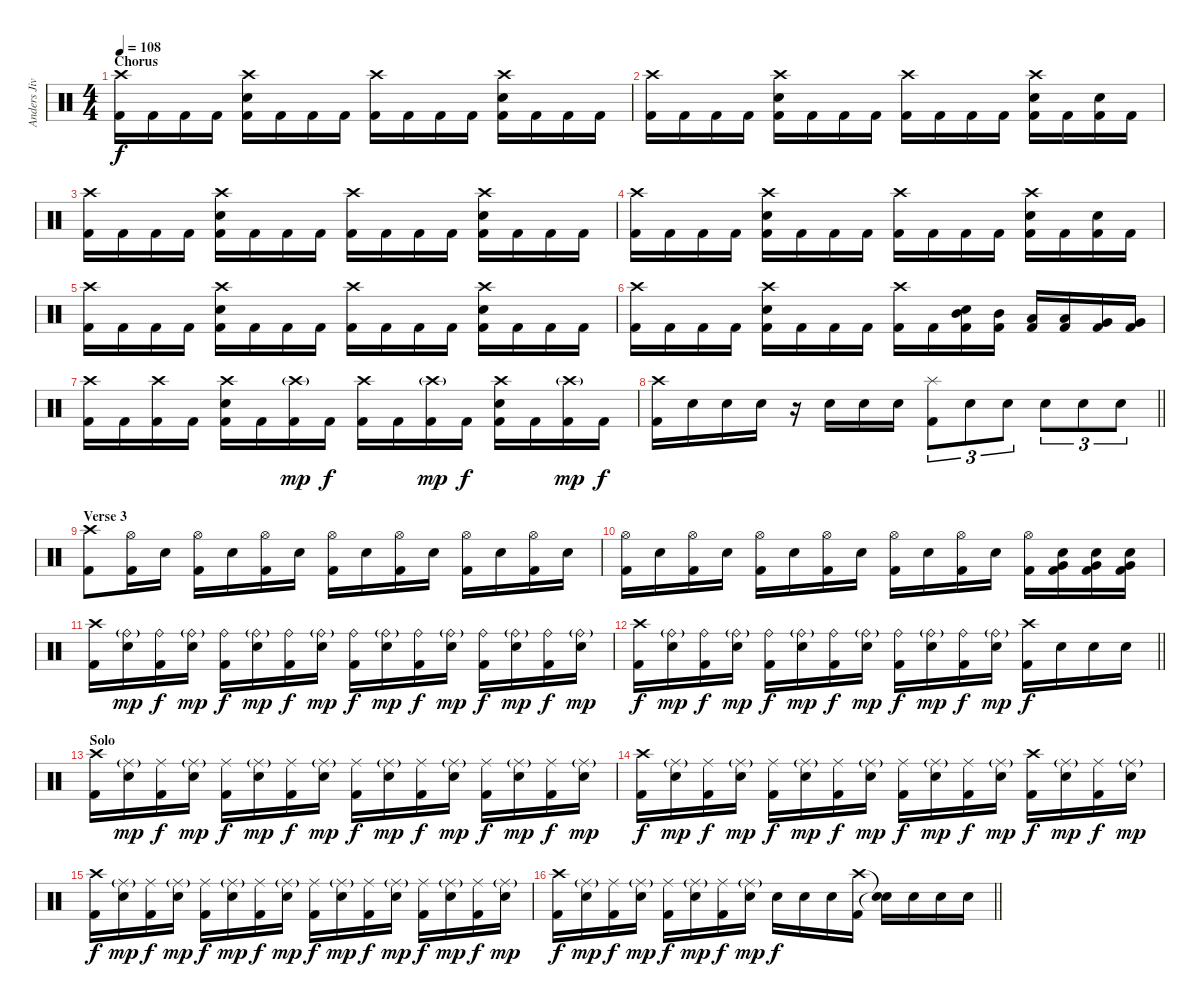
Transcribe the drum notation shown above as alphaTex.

\track ("Anders Jivarp" "Anders Jiv") {instrument percussion}
\staff {score}
\articulation defaults
\ts (4 4)
\section ("" "Chorus")
\tempo 108
\clef neutral
\ks c
("Crash high (hit)" "Kick (hit) 2").16{dy f} "Kick (hit) 2".16 "Kick (hit) 2".16 "Kick (hit) 2".16 ("Crash high (hit)" "Snare (hit) 2" "Kick (hit) 2").16 "Kick (hit) 2".16 "Kick (hit) 2".16 "Kick (hit) 2".16 ("Crash high (hit)" "Kick (hit) 2").16 "Kick (hit) 2".16 "Kick (hit) 2".16 "Kick (hit) 2".16 ("Crash high (hit)" "Snare (hit) 2" "Kick (hit) 2").16 "Kick (hit) 2".16 "Kick (hit) 2".16 "Kick (hit) 2".16 |
("Crash high (hit)" "Kick (hit) 2").16 "Kick (hit) 2".16 "Kick (hit) 2".16 "Kick (hit) 2".16 ("Crash high (hit)" "Snare (hit) 2" "Kick (hit) 2").16 "Kick (hit) 2".16 "Kick (hit) 2".16 "Kick (hit) 2".16 ("Crash high (hit)" "Kick (hit) 2").16 "Kick (hit) 2".16 "Kick (hit) 2".16 "Kick (hit) 2".16 ("Crash high (hit)" "Snare (hit) 2" "Kick (hit) 2").16 "Kick (hit) 2".16 ("Snare (hit) 2" "Kick (hit) 2").16 "Kick (hit) 2".16 |
("Crash high (hit)" "Kick (hit) 2").16 "Kick (hit) 2".16 "Kick (hit) 2".16 "Kick (hit) 2".16 ("Crash high (hit)" "Snare (hit) 2" "Kick (hit) 2").16 "Kick (hit) 2".16 "Kick (hit) 2".16 "Kick (hit) 2".16 ("Crash high (hit)" "Kick (hit) 2").16 "Kick (hit) 2".16 "Kick (hit) 2".16 "Kick (hit) 2".16 ("Crash high (hit)" "Snare (hit) 2" "Kick (hit) 2").16 "Kick (hit) 2".16 "Kick (hit) 2".16 "Kick (hit) 2".16 |
("Crash high (hit)" "Kick (hit) 2").16 "Kick (hit) 2".16 "Kick (hit) 2".16 "Kick (hit) 2".16 ("Crash high (hit)" "Snare (hit) 2" "Kick (hit) 2").16 "Kick (hit) 2".16 "Kick (hit) 2".16 "Kick (hit) 2".16 ("Crash high (hit)" "Kick (hit) 2").16 "Kick (hit) 2".16 "Kick (hit) 2".16 "Kick (hit) 2".16 ("Crash high (hit)" "Snare (hit) 2" "Kick (hit) 2").16 "Kick (hit) 2".16 ("Snare (hit) 2" "Kick (hit) 2").16 "Kick (hit) 2".16 |
("Crash high (hit)" "Kick (hit) 2").16 "Kick (hit) 2".16 "Kick (hit) 2".16 "Kick (hit) 2".16 ("Crash high (hit)" "Snare (hit) 2" "Kick (hit) 2").16 "Kick (hit) 2".16 "Kick (hit) 2".16 "Kick (hit) 2".16 ("Crash high (hit)" "Kick (hit) 2").16 "Kick (hit) 2".16 "Kick (hit) 2".16 "Kick (hit) 2".16 ("Crash high (hit)" "Snare (hit) 2" "Kick (hit) 2").16 "Kick (hit) 2".16 "Kick (hit) 2".16 "Kick (hit) 2".16 |
("Crash high (hit)" "Kick (hit) 2").16 "Kick (hit) 2".16 "Kick (hit) 2".16 "Kick (hit) 2".16 ("Crash high (hit)" "Snare (hit) 2" "Kick (hit) 2").16 "Kick (hit) 2".16 "Kick (hit) 2".16 "Kick (hit) 2".16 ("Crash high (hit)" "Kick (hit) 2").16 "Kick (hit) 2".16 ("Mid Tom (hit)" "Snare (hit) 2" "Kick (hit) 2").16 ("Mid Tom (hit)" "Kick (hit) 2").16 ("Low Tom (hit)" "Kick (hit) 2").16 ("Low Tom (hit)" "Kick (hit) 2").16 ("Very Low Tom (hit)" "Kick (hit) 2").16 ("Very Low Tom (hit)" "Kick (hit) 2").16 |
("Crash high (hit)" "Kick (hit) 2").16 "Kick (hit) 2".16 ("Crash high (hit)" "Kick (hit) 2").16 "Kick (hit) 2".16 ("Crash high (hit)" "Snare (hit) 2" "Kick (hit) 2").16 "Kick (hit) 2".16 ("Crash high (hit)"{g} "Kick (hit) 2").16{dy mp} "Kick (hit) 2".16{dy f} ("Crash high (hit)" "Kick (hit) 2").16 "Kick (hit) 2".16 ("Crash high (hit)"{g} "Kick (hit) 2").16{dy mp} "Kick (hit) 2".16{dy f} ("Crash high (hit)" "Snare (hit) 2" "Kick (hit) 2").16 "Kick (hit) 2".16 ("Crash high (hit)"{g} "Kick (hit) 2").16{dy mp} "Kick (hit) 2".16{dy f} |
\barLineRight lightlight
("Crash high (hit)" "Kick (hit) 2").16 "Snare (hit) 2".16 "Snare (hit) 2".16 "Snare (hit) 2".16 r.16 "Snare (hit) 2".16 "Snare (hit) 2".16 "Snare (hit) 2".16 ("Splash (hit)" "Kick (hit) 2").8{tu (3 2)} "Snare (hit) 2".8{tu (3 2)} "Snare (hit) 2".8{tu (3 2)} "Snare (hit) 2".8{tu (3 2)} "Snare (hit) 2".8{tu (3 2)} "Snare (hit) 2".8{tu (3 2)} |
\section ("" "Verse 3")
("Crash high (hit)" "Kick (hit) 2").8 ("Hi-Hat (open)" "Kick (hit) 2").16 "Snare (hit) 2".16 ("Hi-Hat (open)" "Kick (hit) 2").16 "Snare (hit) 2".16 ("Hi-Hat (open)" "Kick (hit) 2").16 "Snare (hit) 2".16 ("Hi-Hat (open)" "Kick (hit) 2").16 "Snare (hit) 2".16 ("Hi-Hat (open)" "Kick (hit) 2").16 "Snare (hit) 2".16 ("Hi-Hat (open)" "Kick (hit) 2").16 "Snare (hit) 2".16 ("Hi-Hat (open)" "Kick (hit) 2").16 "Snare (hit) 2".16 |
("Hi-Hat (open)" "Kick (hit) 2").16 "Snare (hit) 2".16 ("Hi-Hat (open)" "Kick (hit) 2").16 "Snare (hit) 2".16 ("Hi-Hat (open)" "Kick (hit) 2").16 "Snare (hit) 2".16 ("Hi-Hat (open)" "Kick (hit) 2").16 "Snare (hit) 2".16 ("Hi-Hat (open)" "Kick (hit) 2").16 "Snare (hit) 2".16 ("Hi-Hat (open)" "Kick (hit) 2").16 "Snare (hit) 2".16 ("Hi-Hat (open)" "Kick (hit) 2").16 ("Snare (hit) 2" "Very Low Tom (hit)" "Kick (hit) 2").16 ("Snare (hit) 2" "Very Low Tom (hit)" "Kick (hit) 2").16 ("Snare (hit) 2" "Very Low Tom (hit)" "Kick (hit) 2").16 |
("Crash high (hit)" "Kick (hit) 2").16 ("Ride (bell)"{g} "Snare (hit) 2").16{dy mp} ("Ride (bell)" "Kick (hit) 2").16{dy f} ("Ride (bell)"{g} "Snare (hit) 2").16{dy mp} ("Ride (bell)" "Kick (hit) 2").16{dy f} ("Ride (bell)"{g} "Snare (hit) 2").16{dy mp} ("Ride (bell)" "Kick (hit) 2").16{dy f} ("Ride (bell)"{g} "Snare (hit) 2").16{dy mp} ("Ride (bell)" "Kick (hit) 2").16{dy f} ("Ride (bell)"{g} "Snare (hit) 2").16{dy mp} ("Ride (bell)" "Kick (hit) 2").16{dy f} ("Ride (bell)"{g} "Snare (hit) 2").16{dy mp} ("Ride (bell)" "Kick (hit) 2").16{dy f} ("Ride (bell)"{g} "Snare (hit) 2").16{dy mp} ("Ride (bell)" "Kick (hit) 2").16{dy f} ("Ride (bell)"{g} "Snare (hit) 2").16{dy mp} |
\barLineRight lightlight
("Crash high (hit)" "Kick (hit) 2").16{dy f} ("Ride (bell)"{g} "Snare (hit) 2").16{dy mp} ("Ride (bell)" "Kick (hit) 2").16{dy f} ("Ride (bell)"{g} "Snare (hit) 2").16{dy mp} ("Ride (bell)" "Kick (hit) 2").16{dy f} ("Ride (bell)"{g} "Snare (hit) 2").16{dy mp} ("Ride (bell)" "Kick (hit) 2").16{dy f} ("Ride (bell)"{g} "Snare (hit) 2").16{dy mp} ("Ride (bell)" "Kick (hit) 2").16{dy f} ("Ride (bell)"{g} "Snare (hit) 2").16{dy mp} ("Ride (bell)" "Kick (hit) 2").16{dy f} ("Ride (bell)"{g} "Snare (hit) 2").16{dy mp} ("Crash high (hit)" "Kick (hit) 2").16{dy f} "Snare (hit) 2".16 "Snare (hit) 2".16 "Snare (hit) 2".16 |
\section ("" "Solo")
("Crash high (hit)" "Kick (hit) 2").16 ("Ride (middle)"{g} "Snare (hit) 2").16{dy mp} ("Ride (middle)" "Kick (hit) 2").16{dy f} ("Ride (middle)"{g} "Snare (hit) 2").16{dy mp} ("Ride (middle)" "Kick (hit) 2").16{dy f} ("Ride (middle)"{g} "Snare (hit) 2").16{dy mp} ("Ride (middle)" "Kick (hit) 2").16{dy f} ("Ride (middle)"{g} "Snare (hit) 2").16{dy mp} ("Ride (middle)" "Kick (hit) 2").16{dy f} ("Ride (middle)"{g} "Snare (hit) 2").16{dy mp} ("Ride (middle)" "Kick (hit) 2").16{dy f} ("Ride (middle)"{g} "Snare (hit) 2").16{dy mp} ("Ride (middle)" "Kick (hit) 2").16{dy f} ("Ride (middle)"{g} "Snare (hit) 2").16{dy mp} ("Ride (middle)" "Kick (hit) 2").16{dy f} ("Ride (middle)"{g} "Snare (hit) 2").16{dy mp} |
("Crash high (hit)" "Kick (hit) 2").16{dy f} ("Ride (middle)"{g} "Snare (hit) 2").16{dy mp} ("Ride (middle)" "Kick (hit) 2").16{dy f} ("Ride (middle)"{g} "Snare (hit) 2").16{dy mp} ("Ride (middle)" "Kick (hit) 2").16{dy f} ("Ride (middle)"{g} "Snare (hit) 2").16{dy mp} ("Ride (middle)" "Kick (hit) 2").16{dy f} ("Ride (middle)"{g} "Snare (hit) 2").16{dy mp} ("Ride (middle)" "Kick (hit) 2").16{dy f} ("Ride (middle)"{g} "Snare (hit) 2").16{dy mp} ("Ride (middle)" "Kick (hit) 2").16{dy f} ("Ride (middle)"{g} "Snare (hit) 2").16{dy mp} ("Crash high (hit)" "Kick (hit) 2").16{dy f} ("Ride (middle)"{g} "Snare (hit) 2").16{dy mp} ("Ride (middle)" "Kick (hit) 2").16{dy f} ("Ride (middle)"{g} "Snare (hit) 2").16{dy mp} |
("Crash high (hit)" "Kick (hit) 2").16{dy f} ("Ride (middle)"{g} "Snare (hit) 2").16{dy mp} ("Ride (middle)" "Kick (hit) 2").16{dy f} ("Ride (middle)"{g} "Snare (hit) 2").16{dy mp} ("Ride (middle)" "Kick (hit) 2").16{dy f} ("Ride (middle)"{g} "Snare (hit) 2").16{dy mp} ("Ride (middle)" "Kick (hit) 2").16{dy f} ("Ride (middle)"{g} "Snare (hit) 2").16{dy mp} ("Ride (middle)" "Kick (hit) 2").16{dy f} ("Ride (middle)"{g} "Snare (hit) 2").16{dy mp} ("Ride (middle)" "Kick (hit) 2").16{dy f} ("Ride (middle)"{g} "Snare (hit) 2").16{dy mp} ("Ride (middle)" "Kick (hit) 2").16{dy f} ("Ride (middle)"{g} "Snare (hit) 2").16{dy mp} ("Ride (middle)" "Kick (hit) 2").16{dy f} ("Ride (middle)"{g} "Snare (hit) 2").16{dy mp} |
\barLineRight lightlight
("Crash high (hit)" "Kick (hit) 2").16{dy f} ("Ride (middle)"{g} "Snare (hit) 2").16{dy mp} ("Ride (middle)" "Kick (hit) 2").16{dy f} ("Ride (middle)"{g} "Snare (hit) 2").16{dy mp} ("Ride (middle)" "Kick (hit) 2").16{dy f} ("Ride (middle)"{g} "Snare (hit) 2").16{dy mp} ("Ride (middle)" "Kick (hit) 2").16{dy f} ("Ride (middle)"{g} "Snare (hit) 2").16{dy mp} "Snare (hit) 2".16{dy f} "Snare (hit) 2".16 "Snare (hit) 2".16 ("Crash high (hit)" "Kick (hit) 2").16 ("Snare (hit)"{t} "Snare (hit)"{t}).16 "Snare (hit) 2".16 "Snare (hit) 2".16 "Snare (hit) 2".16
